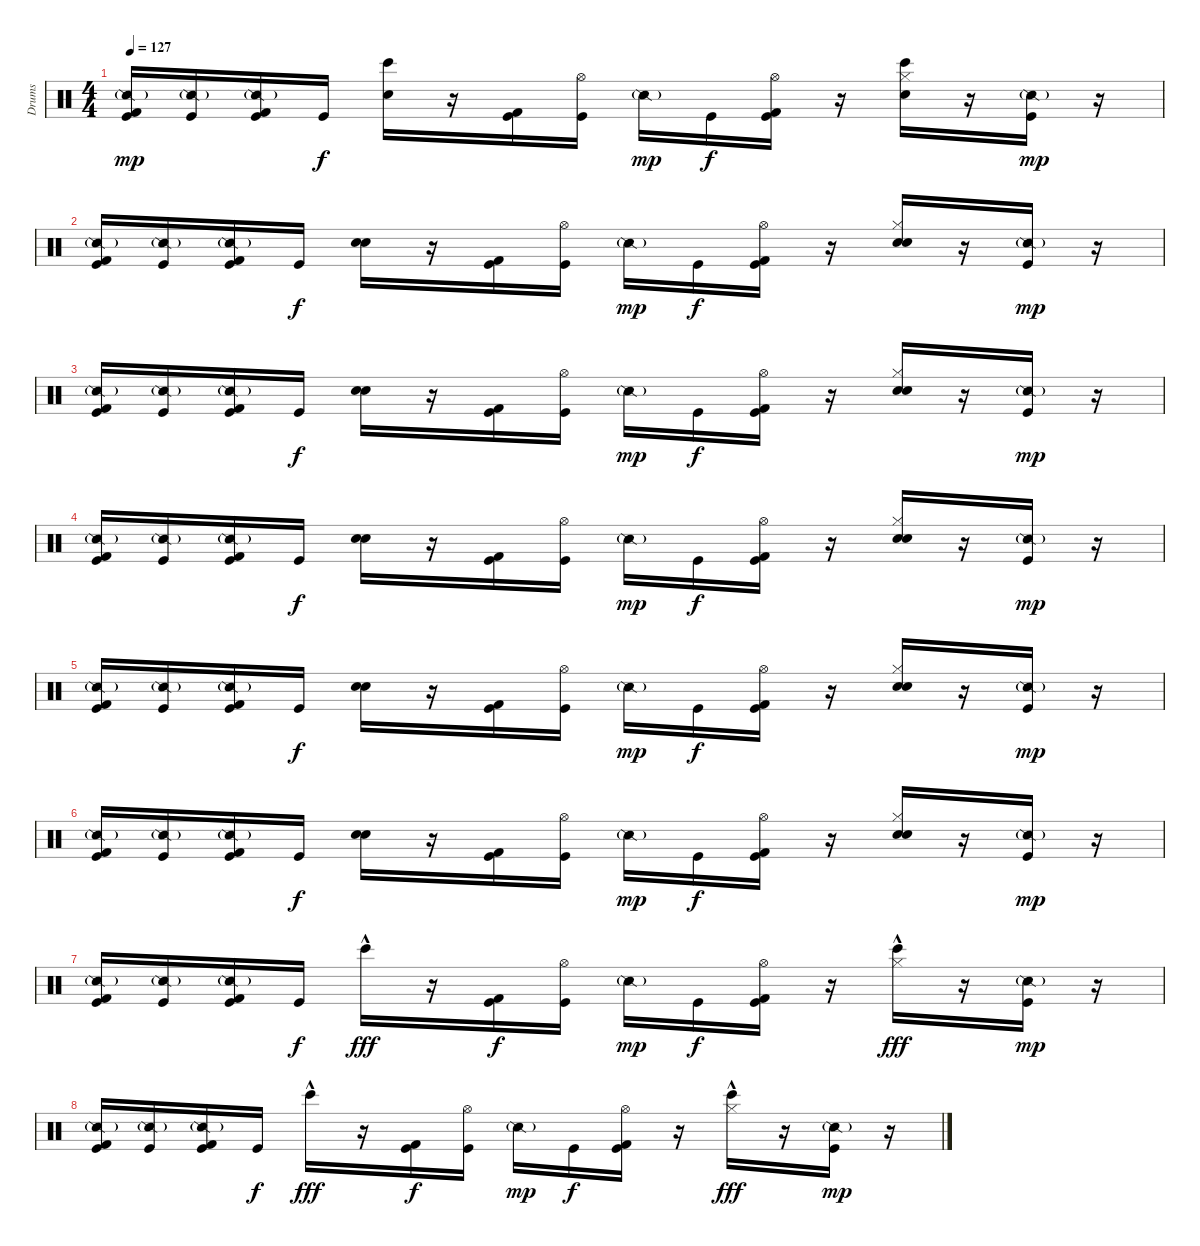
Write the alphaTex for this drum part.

\track ("Drums" "Drums") {instrument percussion}
\staff {score}
\articulation defaults
\ts (4 4)
\tempo 127
\clef neutral
\ks c
("Snare (side stick) 2"{g} "Kick (hit) 2" "Kick (hit)").16{dy mp} ("Snare (side stick) 2"{g} "Kick (hit)").16 ("Snare (side stick) 2"{g} "Kick (hit) 2" "Kick (hit)").16 "Kick (hit)".16{dy f} ("Snare (hit) 2" "Bongo High (hit)").16 r.16 ("Kick (hit) 2" "Kick (hit)").16 ("Hi-Hat (open)" "Kick (hit)").16 "Snare (side stick) 2"{g}.16{dy mp} "Kick (hit)".16{dy f} ("Hi-Hat (open)" "Kick (hit) 2" "Kick (hit)").16 r.16 ("Hi-Hat (closed)" "Snare (hit) 2" "Bongo High (hit)").16 r.16 ("Snare (side stick) 2"{g} "Kick (hit)").16{dy mp} r.16 |
("Snare (side stick) 2"{g} "Kick (hit) 2" "Kick (hit)").16 ("Snare (side stick) 2"{g} "Kick (hit)").16 ("Snare (side stick) 2"{g} "Kick (hit) 2" "Kick (hit)").16 "Kick (hit)".16{dy f} ("Snare (hit) 2" "Hand Clap (hit)").16 r.16 ("Kick (hit) 2" "Kick (hit)").16 ("Hi-Hat (open)" "Kick (hit)").16 "Snare (side stick) 2"{g}.16{dy mp} "Kick (hit)".16{dy f} ("Hi-Hat (open)" "Kick (hit) 2" "Kick (hit)").16 r.16 ("Hi-Hat (closed)" "Snare (hit) 2" "Hand Clap (hit)").16 r.16 ("Snare (side stick) 2"{g} "Kick (hit)").16{dy mp} r.16 |
("Snare (side stick) 2"{g} "Kick (hit) 2" "Kick (hit)").16 ("Snare (side stick) 2"{g} "Kick (hit)").16 ("Snare (side stick) 2"{g} "Kick (hit) 2" "Kick (hit)").16 "Kick (hit)".16{dy f} ("Snare (hit) 2" "Hand Clap (hit)").16 r.16 ("Kick (hit) 2" "Kick (hit)").16 ("Hi-Hat (open)" "Kick (hit)").16 "Snare (side stick) 2"{g}.16{dy mp} "Kick (hit)".16{dy f} ("Hi-Hat (open)" "Kick (hit) 2" "Kick (hit)").16 r.16 ("Hi-Hat (closed)" "Snare (hit) 2" "Hand Clap (hit)").16 r.16 ("Snare (side stick) 2"{g} "Kick (hit)").16{dy mp} r.16 |
("Snare (side stick) 2"{g} "Kick (hit) 2" "Kick (hit)").16 ("Snare (side stick) 2"{g} "Kick (hit)").16 ("Snare (side stick) 2"{g} "Kick (hit) 2" "Kick (hit)").16 "Kick (hit)".16{dy f} ("Snare (hit) 2" "Hand Clap (hit)").16 r.16 ("Kick (hit) 2" "Kick (hit)").16 ("Hi-Hat (open)" "Kick (hit)").16 "Snare (side stick) 2"{g}.16{dy mp} "Kick (hit)".16{dy f} ("Hi-Hat (open)" "Kick (hit) 2" "Kick (hit)").16 r.16 ("Hi-Hat (closed)" "Snare (hit) 2" "Hand Clap (hit)").16 r.16 ("Snare (side stick) 2"{g} "Kick (hit)").16{dy mp} r.16 |
("Snare (side stick) 2"{g} "Kick (hit) 2" "Kick (hit)").16 ("Snare (side stick) 2"{g} "Kick (hit)").16 ("Snare (side stick) 2"{g} "Kick (hit) 2" "Kick (hit)").16 "Kick (hit)".16{dy f} ("Snare (hit) 2" "Hand Clap (hit)").16 r.16 ("Kick (hit) 2" "Kick (hit)").16 ("Hi-Hat (open)" "Kick (hit)").16 "Snare (side stick) 2"{g}.16{dy mp} "Kick (hit)".16{dy f} ("Hi-Hat (open)" "Kick (hit) 2" "Kick (hit)").16 r.16 ("Hi-Hat (closed)" "Snare (hit) 2" "Hand Clap (hit)").16 r.16 ("Snare (side stick) 2"{g} "Kick (hit)").16{dy mp} r.16 |
("Snare (side stick) 2"{g} "Kick (hit) 2" "Kick (hit)").16 ("Snare (side stick) 2"{g} "Kick (hit)").16 ("Snare (side stick) 2"{g} "Kick (hit) 2" "Kick (hit)").16 "Kick (hit)".16{dy f} ("Snare (hit) 2" "Hand Clap (hit)").16 r.16 ("Kick (hit) 2" "Kick (hit)").16 ("Hi-Hat (open)" "Kick (hit)").16 "Snare (side stick) 2"{g}.16{dy mp} "Kick (hit)".16{dy f} ("Hi-Hat (open)" "Kick (hit) 2" "Kick (hit)").16 r.16 ("Hi-Hat (closed)" "Snare (hit) 2" "Hand Clap (hit)").16 r.16 ("Snare (side stick) 2"{g} "Kick (hit)").16{dy mp} r.16 |
("Snare (side stick) 2"{g} "Kick (hit) 2" "Kick (hit)").16 ("Snare (side stick) 2"{g} "Kick (hit)").16 ("Snare (side stick) 2"{g} "Kick (hit) 2" "Kick (hit)").16 "Kick (hit)".16{dy f} "Bongo High (hit)"{hac}.16{dy fff} r.16 ("Kick (hit) 2" "Kick (hit)").16{dy f} ("Hi-Hat (open)" "Kick (hit)").16 "Snare (side stick) 2"{g}.16{dy mp} "Kick (hit)".16{dy f} ("Hi-Hat (open)" "Kick (hit) 2" "Kick (hit)").16 r.16 ("Hi-Hat (closed)" "Bongo High (hit)"{hac}).16{dy fff} r.16 ("Snare (side stick) 2"{g} "Kick (hit)").16{dy mp} r.16 |
("Snare (side stick) 2"{g} "Kick (hit) 2" "Kick (hit)").16 ("Snare (side stick) 2"{g} "Kick (hit)").16 ("Snare (side stick) 2"{g} "Kick (hit) 2" "Kick (hit)").16 "Kick (hit)".16{dy f} "Bongo High (hit)"{hac}.16{dy fff} r.16 ("Kick (hit) 2" "Kick (hit)").16{dy f} ("Hi-Hat (open)" "Kick (hit)").16 "Snare (side stick) 2"{g}.16{dy mp} "Kick (hit)".16{dy f} ("Hi-Hat (open)" "Kick (hit) 2" "Kick (hit)").16 r.16 ("Hi-Hat (closed)" "Bongo High (hit)"{hac}).16{dy fff} r.16 ("Snare (side stick) 2"{g} "Kick (hit)").16{dy mp} r.16
